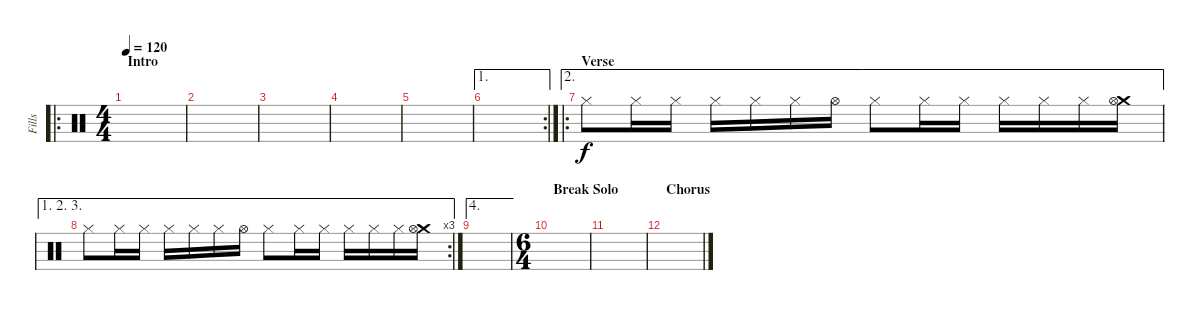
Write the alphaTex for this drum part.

\track ("Fills" "Fills") {instrument percussion}
\staff {score}
\articulation defaults
\ro
\ts (4 4)
\section ("" "Intro")
\tempo 120
\clef neutral
\ks c
|
|
|
|
|
\ae 1
\rc 2
|
\ae 2
\ro
\section ("" "Verse")
"Hi-Hat (closed)".8 "Hi-Hat (closed)".16 "Hi-Hat (closed)".16 "Hi-Hat (closed)".16 "Hi-Hat (closed)".16 "Hi-Hat (closed)".16 "Hi-Hat (open)".16 "Hi-Hat (closed)".8 "Hi-Hat (closed)".16 "Hi-Hat (closed)".16 "Hi-Hat (closed)".16 "Hi-Hat (closed)".16 "Hi-Hat (closed)".16 ("Crash medium (hit)" "Hi-Hat (open)").16 |
\ae (1 2 3)
\rc 3 "Hi-Hat (closed)".8 "Hi-Hat (closed)".16 "Hi-Hat (closed)".16 "Hi-Hat (closed)".16 "Hi-Hat (closed)".16 "Hi-Hat (closed)".16 "Hi-Hat (open)".16 "Hi-Hat (closed)".8 "Hi-Hat (closed)".16 "Hi-Hat (closed)".16 "Hi-Hat (closed)".16 "Hi-Hat (closed)".16 "Hi-Hat (closed)".16
("Crash medium (hit)" "Hi-Hat (open)").16 |
\ae 4
|
\ts (6 4)
\section ("" "Break Solo")
|
|
\section ("" "Chorus")
